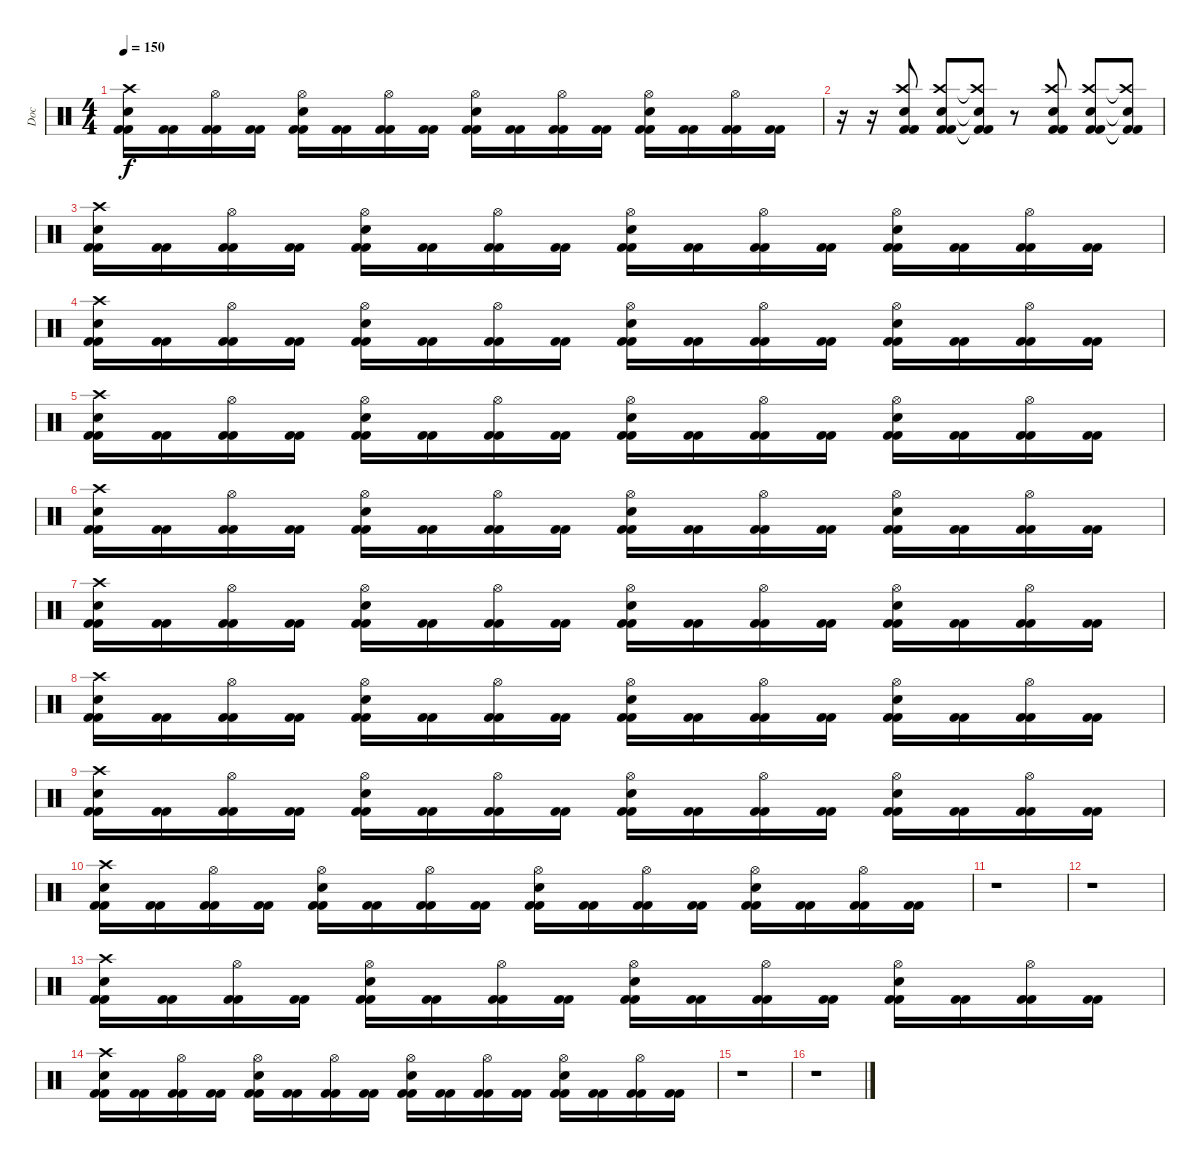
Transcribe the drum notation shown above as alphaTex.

\track ("Doc" "Doc") {instrument percussion}
\staff {score}
\articulation defaults
\ts (4 4)
\tempo 150
\clef neutral
\ks c
("Kick (hit) 2" "Crash high (hit)" "Electric Snare (hit)" "Kick (hit) 2").16{dy f} ("Kick (hit) 2" "Kick (hit) 2").16 ("Kick (hit) 2" "Hi-Hat (open)" "Kick (hit) 2").16 ("Kick (hit) 2" "Kick (hit) 2").16 ("Kick (hit) 2" "Hi-Hat (open)" "Electric Snare (hit)" "Kick (hit) 2").16 ("Kick (hit) 2" "Kick (hit) 2").16 ("Kick (hit) 2" "Hi-Hat (open)" "Kick (hit) 2").16 ("Kick (hit) 2" "Kick (hit) 2").16 ("Kick (hit) 2" "Hi-Hat (open)" "Electric Snare (hit)" "Kick (hit) 2").16 ("Kick (hit) 2" "Kick (hit) 2").16 ("Kick (hit) 2" "Hi-Hat (open)" "Kick (hit) 2").16 ("Kick (hit) 2" "Kick (hit) 2").16 ("Kick (hit) 2" "Hi-Hat (open)" "Electric Snare (hit)" "Kick (hit) 2").16 ("Kick (hit) 2" "Kick (hit) 2").16 ("Kick (hit) 2" "Hi-Hat (open)" "Kick (hit) 2").16 ("Kick (hit) 2" "Kick (hit) 2").16 |
r.16 r.16 ("Crash high (hit)" "Electric Snare (hit)" "Kick (hit) 2" "Kick (hit) 2").8 ("Crash high (hit)" "Electric Snare (hit)" "Kick (hit) 2" "Kick (hit) 2").8 ("Crash high (hit)"{t} "Electric Snare (hit)"{t} "Kick (hit) 2"{t} "Kick (hit) 2"{t}).8 r.8 ("Crash high (hit)" "Electric Snare (hit)" "Kick (hit) 2" "Kick (hit) 2").8 ("Crash high (hit)" "Electric Snare (hit)" "Kick (hit) 2" "Kick (hit) 2").8 ("Crash high (hit)"{t} "Electric Snare (hit)"{t} "Kick (hit) 2"{t} "Kick (hit) 2"{t}).8 |
("Kick (hit) 2" "Crash high (hit)" "Electric Snare (hit)" "Kick (hit) 2").16 ("Kick (hit) 2" "Kick (hit) 2").16 ("Kick (hit) 2" "Hi-Hat (open)" "Kick (hit) 2").16 ("Kick (hit) 2" "Kick (hit) 2").16 ("Kick (hit) 2" "Hi-Hat (open)" "Electric Snare (hit)" "Kick (hit) 2").16 ("Kick (hit) 2" "Kick (hit) 2").16 ("Kick (hit) 2" "Hi-Hat (open)" "Kick (hit) 2").16 ("Kick (hit) 2" "Kick (hit) 2").16 ("Kick (hit) 2" "Hi-Hat (open)" "Electric Snare (hit)" "Kick (hit) 2").16 ("Kick (hit) 2" "Kick (hit) 2").16 ("Kick (hit) 2" "Hi-Hat (open)" "Kick (hit) 2").16 ("Kick (hit) 2" "Kick (hit) 2").16 ("Kick (hit) 2" "Hi-Hat (open)" "Electric Snare (hit)" "Kick (hit) 2").16 ("Kick (hit) 2" "Kick (hit) 2").16 ("Kick (hit) 2" "Hi-Hat (open)" "Kick (hit) 2").16 ("Kick (hit) 2" "Kick (hit) 2").16 |
("Kick (hit) 2" "Crash high (hit)" "Electric Snare (hit)" "Kick (hit) 2").16 ("Kick (hit) 2" "Kick (hit) 2").16 ("Kick (hit) 2" "Hi-Hat (open)" "Kick (hit) 2").16 ("Kick (hit) 2" "Kick (hit) 2").16 ("Kick (hit) 2" "Hi-Hat (open)" "Electric Snare (hit)" "Kick (hit) 2").16 ("Kick (hit) 2" "Kick (hit) 2").16 ("Kick (hit) 2" "Hi-Hat (open)" "Kick (hit) 2").16 ("Kick (hit) 2" "Kick (hit) 2").16 ("Kick (hit) 2" "Hi-Hat (open)" "Electric Snare (hit)" "Kick (hit) 2").16 ("Kick (hit) 2" "Kick (hit) 2").16 ("Kick (hit) 2" "Hi-Hat (open)" "Kick (hit) 2").16 ("Kick (hit) 2" "Kick (hit) 2").16 ("Kick (hit) 2" "Hi-Hat (open)" "Electric Snare (hit)" "Kick (hit) 2").16 ("Kick (hit) 2" "Kick (hit) 2").16 ("Kick (hit) 2" "Hi-Hat (open)" "Kick (hit) 2").16 ("Kick (hit) 2" "Kick (hit) 2").16 |
("Kick (hit) 2" "Crash high (hit)" "Electric Snare (hit)" "Kick (hit) 2").16 ("Kick (hit) 2" "Kick (hit) 2").16 ("Kick (hit) 2" "Hi-Hat (open)" "Kick (hit) 2").16 ("Kick (hit) 2" "Kick (hit) 2").16 ("Kick (hit) 2" "Hi-Hat (open)" "Electric Snare (hit)" "Kick (hit) 2").16 ("Kick (hit) 2" "Kick (hit) 2").16 ("Kick (hit) 2" "Hi-Hat (open)" "Kick (hit) 2").16 ("Kick (hit) 2" "Kick (hit) 2").16 ("Kick (hit) 2" "Hi-Hat (open)" "Electric Snare (hit)" "Kick (hit) 2").16 ("Kick (hit) 2" "Kick (hit) 2").16 ("Kick (hit) 2" "Hi-Hat (open)" "Kick (hit) 2").16 ("Kick (hit) 2" "Kick (hit) 2").16 ("Kick (hit) 2" "Hi-Hat (open)" "Electric Snare (hit)" "Kick (hit) 2").16 ("Kick (hit) 2" "Kick (hit) 2").16 ("Kick (hit) 2" "Hi-Hat (open)" "Kick (hit) 2").16 ("Kick (hit) 2" "Kick (hit) 2").16 |
("Kick (hit) 2" "Crash high (hit)" "Electric Snare (hit)" "Kick (hit) 2").16 ("Kick (hit) 2" "Kick (hit) 2").16 ("Kick (hit) 2" "Hi-Hat (open)" "Kick (hit) 2").16 ("Kick (hit) 2" "Kick (hit) 2").16 ("Kick (hit) 2" "Hi-Hat (open)" "Electric Snare (hit)" "Kick (hit) 2").16 ("Kick (hit) 2" "Kick (hit) 2").16 ("Kick (hit) 2" "Hi-Hat (open)" "Kick (hit) 2").16 ("Kick (hit) 2" "Kick (hit) 2").16 ("Kick (hit) 2" "Hi-Hat (open)" "Electric Snare (hit)" "Kick (hit) 2").16 ("Kick (hit) 2" "Kick (hit) 2").16 ("Kick (hit) 2" "Hi-Hat (open)" "Kick (hit) 2").16 ("Kick (hit) 2" "Kick (hit) 2").16 ("Kick (hit) 2" "Hi-Hat (open)" "Electric Snare (hit)" "Kick (hit) 2").16 ("Kick (hit) 2" "Kick (hit) 2").16 ("Kick (hit) 2" "Hi-Hat (open)" "Kick (hit) 2").16 ("Kick (hit) 2" "Kick (hit) 2").16 |
("Kick (hit) 2" "Crash high (hit)" "Electric Snare (hit)" "Kick (hit) 2").16 ("Kick (hit) 2" "Kick (hit) 2").16 ("Kick (hit) 2" "Hi-Hat (open)" "Kick (hit) 2").16 ("Kick (hit) 2" "Kick (hit) 2").16 ("Kick (hit) 2" "Hi-Hat (open)" "Electric Snare (hit)" "Kick (hit) 2").16 ("Kick (hit) 2" "Kick (hit) 2").16 ("Kick (hit) 2" "Hi-Hat (open)" "Kick (hit) 2").16 ("Kick (hit) 2" "Kick (hit) 2").16 ("Kick (hit) 2" "Hi-Hat (open)" "Electric Snare (hit)" "Kick (hit) 2").16 ("Kick (hit) 2" "Kick (hit) 2").16 ("Kick (hit) 2" "Hi-Hat (open)" "Kick (hit) 2").16 ("Kick (hit) 2" "Kick (hit) 2").16 ("Kick (hit) 2" "Hi-Hat (open)" "Electric Snare (hit)" "Kick (hit) 2").16 ("Kick (hit) 2" "Kick (hit) 2").16 ("Kick (hit) 2" "Hi-Hat (open)" "Kick (hit) 2").16 ("Kick (hit) 2" "Kick (hit) 2").16 |
("Kick (hit) 2" "Crash high (hit)" "Electric Snare (hit)" "Kick (hit) 2").16 ("Kick (hit) 2" "Kick (hit) 2").16 ("Kick (hit) 2" "Hi-Hat (open)" "Kick (hit) 2").16 ("Kick (hit) 2" "Kick (hit) 2").16 ("Kick (hit) 2" "Hi-Hat (open)" "Electric Snare (hit)" "Kick (hit) 2").16 ("Kick (hit) 2" "Kick (hit) 2").16 ("Kick (hit) 2" "Hi-Hat (open)" "Kick (hit) 2").16 ("Kick (hit) 2" "Kick (hit) 2").16 ("Kick (hit) 2" "Hi-Hat (open)" "Electric Snare (hit)" "Kick (hit) 2").16 ("Kick (hit) 2" "Kick (hit) 2").16 ("Kick (hit) 2" "Hi-Hat (open)" "Kick (hit) 2").16 ("Kick (hit) 2" "Kick (hit) 2").16 ("Kick (hit) 2" "Hi-Hat (open)" "Electric Snare (hit)" "Kick (hit) 2").16 ("Kick (hit) 2" "Kick (hit) 2").16 ("Kick (hit) 2" "Hi-Hat (open)" "Kick (hit) 2").16 ("Kick (hit) 2" "Kick (hit) 2").16 |
("Kick (hit) 2" "Crash high (hit)" "Electric Snare (hit)" "Kick (hit) 2").16 ("Kick (hit) 2" "Kick (hit) 2").16 ("Kick (hit) 2" "Hi-Hat (open)" "Kick (hit) 2").16 ("Kick (hit) 2" "Kick (hit) 2").16 ("Kick (hit) 2" "Hi-Hat (open)" "Electric Snare (hit)" "Kick (hit) 2").16 ("Kick (hit) 2" "Kick (hit) 2").16 ("Kick (hit) 2" "Hi-Hat (open)" "Kick (hit) 2").16 ("Kick (hit) 2" "Kick (hit) 2").16 ("Kick (hit) 2" "Hi-Hat (open)" "Electric Snare (hit)" "Kick (hit) 2").16 ("Kick (hit) 2" "Kick (hit) 2").16 ("Kick (hit) 2" "Hi-Hat (open)" "Kick (hit) 2").16 ("Kick (hit) 2" "Kick (hit) 2").16 ("Kick (hit) 2" "Hi-Hat (open)" "Electric Snare (hit)" "Kick (hit) 2").16 ("Kick (hit) 2" "Kick (hit) 2").16 ("Kick (hit) 2" "Hi-Hat (open)" "Kick (hit) 2").16 ("Kick (hit) 2" "Kick (hit) 2").16 |
("Kick (hit) 2" "Crash high (hit)" "Electric Snare (hit)" "Kick (hit) 2").16 ("Kick (hit) 2" "Kick (hit) 2").16 ("Kick (hit) 2" "Hi-Hat (open)" "Kick (hit) 2").16 ("Kick (hit) 2" "Kick (hit) 2").16 ("Kick (hit) 2" "Hi-Hat (open)" "Electric Snare (hit)" "Kick (hit) 2").16 ("Kick (hit) 2" "Kick (hit) 2").16 ("Kick (hit) 2" "Hi-Hat (open)" "Kick (hit) 2").16 ("Kick (hit) 2" "Kick (hit) 2").16 ("Kick (hit) 2" "Hi-Hat (open)" "Electric Snare (hit)" "Kick (hit) 2").16 ("Kick (hit) 2" "Kick (hit) 2").16 ("Kick (hit) 2" "Hi-Hat (open)" "Kick (hit) 2").16 ("Kick (hit) 2" "Kick (hit) 2").16 ("Kick (hit) 2" "Hi-Hat (open)" "Electric Snare (hit)" "Kick (hit) 2").16 ("Kick (hit) 2" "Kick (hit) 2").16 ("Kick (hit) 2" "Hi-Hat (open)" "Kick (hit) 2").16 ("Kick (hit) 2" "Kick (hit) 2").16 |
r.1 |
r.1 |
("Kick (hit) 2" "Crash high (hit)" "Electric Snare (hit)" "Kick (hit) 2").16 ("Kick (hit) 2" "Kick (hit) 2").16 ("Kick (hit) 2" "Hi-Hat (open)" "Kick (hit) 2").16 ("Kick (hit) 2" "Kick (hit) 2").16 ("Kick (hit) 2" "Hi-Hat (open)" "Electric Snare (hit)" "Kick (hit) 2").16 ("Kick (hit) 2" "Kick (hit) 2").16 ("Kick (hit) 2" "Hi-Hat (open)" "Kick (hit) 2").16 ("Kick (hit) 2" "Kick (hit) 2").16 ("Kick (hit) 2" "Hi-Hat (open)" "Electric Snare (hit)" "Kick (hit) 2").16 ("Kick (hit) 2" "Kick (hit) 2").16 ("Kick (hit) 2" "Hi-Hat (open)" "Kick (hit) 2").16 ("Kick (hit) 2" "Kick (hit) 2").16 ("Kick (hit) 2" "Hi-Hat (open)" "Electric Snare (hit)" "Kick (hit) 2").16 ("Kick (hit) 2" "Kick (hit) 2").16 ("Kick (hit) 2" "Hi-Hat (open)" "Kick (hit) 2").16 ("Kick (hit) 2" "Kick (hit) 2").16 |
("Kick (hit) 2" "Crash high (hit)" "Electric Snare (hit)" "Kick (hit) 2").16 ("Kick (hit) 2" "Kick (hit) 2").16 ("Kick (hit) 2" "Hi-Hat (open)" "Kick (hit) 2").16 ("Kick (hit) 2" "Kick (hit) 2").16 ("Kick (hit) 2" "Hi-Hat (open)" "Electric Snare (hit)" "Kick (hit) 2").16 ("Kick (hit) 2" "Kick (hit) 2").16 ("Kick (hit) 2" "Hi-Hat (open)" "Kick (hit) 2").16 ("Kick (hit) 2" "Kick (hit) 2").16 ("Kick (hit) 2" "Hi-Hat (open)" "Electric Snare (hit)" "Kick (hit) 2").16 ("Kick (hit) 2" "Kick (hit) 2").16 ("Kick (hit) 2" "Hi-Hat (open)" "Kick (hit) 2").16 ("Kick (hit) 2" "Kick (hit) 2").16 ("Kick (hit) 2" "Hi-Hat (open)" "Electric Snare (hit)" "Kick (hit) 2").16 ("Kick (hit) 2" "Kick (hit) 2").16 ("Kick (hit) 2" "Hi-Hat (open)" "Kick (hit) 2").16 ("Kick (hit) 2" "Kick (hit) 2").16 |
r.1 |
r.1
